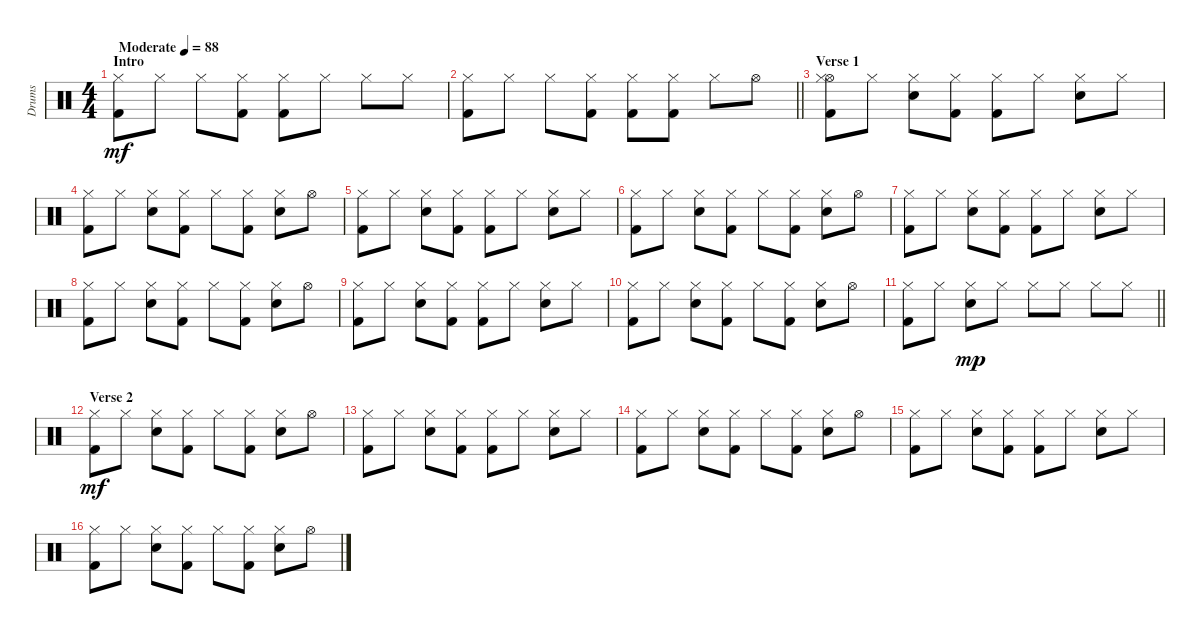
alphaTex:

\track ("Drums" "Drums") {instrument percussion}
\staff {score}
\articulation defaults
\ts (4 4)
\section ("" "Intro")
\tempo (88 "Moderate")
\clef neutral
\ks c
("Kick (hit) 2" "Hi-Hat (closed)").8{dy mf} "Hi-Hat (closed)".8 "Hi-Hat (closed)".8 ("Kick (hit) 2" "Hi-Hat (closed)").8 ("Kick (hit) 2" "Hi-Hat (closed)").8 "Hi-Hat (closed)".8 "Hi-Hat (closed)".8 "Hi-Hat (closed)".8 |
\barLineRight lightlight
("Kick (hit) 2" "Hi-Hat (closed)").8 "Hi-Hat (closed)".8 "Hi-Hat (closed)".8 ("Kick (hit) 2" "Hi-Hat (closed)").8 ("Kick (hit) 2" "Hi-Hat (closed)").8 ("Kick (hit) 2" "Hi-Hat (closed)").8 "Hi-Hat (closed)".8 "Hi-Hat (open)".8 |
\section ("" "Verse 1")
("Kick (hit) 2" "Hi-Hat (open)" "Hi-Hat (closed)").8 "Hi-Hat (closed)".8 ("Snare (hit) 2" "Hi-Hat (closed)").8 ("Kick (hit) 2" "Hi-Hat (closed)").8 ("Kick (hit) 2" "Hi-Hat (closed)").8 "Hi-Hat (closed)".8 ("Snare (hit) 2" "Hi-Hat (closed)").8 "Hi-Hat (closed)".8 |
("Kick (hit) 2" "Hi-Hat (closed)").8 "Hi-Hat (closed)".8 ("Snare (hit) 2" "Hi-Hat (closed)").8 ("Kick (hit) 2" "Hi-Hat (closed)").8 "Hi-Hat (closed)".8 ("Kick (hit) 2" "Hi-Hat (closed)").8 ("Snare (hit) 2" "Hi-Hat (closed)").8 "Hi-Hat (open)".8 |
("Kick (hit) 2" "Hi-Hat (closed)").8 "Hi-Hat (closed)".8 ("Snare (hit) 2" "Hi-Hat (closed)").8 ("Kick (hit) 2" "Hi-Hat (closed)").8 ("Kick (hit) 2" "Hi-Hat (closed)").8 "Hi-Hat (closed)".8 ("Snare (hit) 2" "Hi-Hat (closed)").8 "Hi-Hat (closed)".8 |
("Kick (hit) 2" "Hi-Hat (closed)").8 "Hi-Hat (closed)".8 ("Snare (hit) 2" "Hi-Hat (closed)").8 ("Kick (hit) 2" "Hi-Hat (closed)").8 "Hi-Hat (closed)".8 ("Kick (hit) 2" "Hi-Hat (closed)").8 ("Snare (hit) 2" "Hi-Hat (closed)").8 "Hi-Hat (open)".8 |
("Kick (hit) 2" "Hi-Hat (closed)").8 "Hi-Hat (closed)".8 ("Snare (hit) 2" "Hi-Hat (closed)").8 ("Kick (hit) 2" "Hi-Hat (closed)").8 ("Kick (hit) 2" "Hi-Hat (closed)").8 "Hi-Hat (closed)".8 ("Snare (hit) 2" "Hi-Hat (closed)").8 "Hi-Hat (closed)".8 |
("Kick (hit) 2" "Hi-Hat (closed)").8 "Hi-Hat (closed)".8 ("Snare (hit) 2" "Hi-Hat (closed)").8 ("Kick (hit) 2" "Hi-Hat (closed)").8 "Hi-Hat (closed)".8 ("Kick (hit) 2" "Hi-Hat (closed)").8 ("Snare (hit) 2" "Hi-Hat (closed)").8 "Hi-Hat (open)".8 |
("Kick (hit) 2" "Hi-Hat (closed)").8 "Hi-Hat (closed)".8 ("Snare (hit) 2" "Hi-Hat (closed)").8 ("Kick (hit) 2" "Hi-Hat (closed)").8 ("Kick (hit) 2" "Hi-Hat (closed)").8 "Hi-Hat (closed)".8 ("Snare (hit) 2" "Hi-Hat (closed)").8 "Hi-Hat (closed)".8 |
("Kick (hit) 2" "Hi-Hat (closed)").8 "Hi-Hat (closed)".8 ("Snare (hit) 2" "Hi-Hat (closed)").8 ("Kick (hit) 2" "Hi-Hat (closed)").8 "Hi-Hat (closed)".8 ("Kick (hit) 2" "Hi-Hat (closed)").8 ("Snare (hit) 2" "Hi-Hat (closed)").8 "Hi-Hat (open)".8 |
\barLineRight lightlight
("Kick (hit) 2" "Hi-Hat (closed)").8 "Hi-Hat (closed)".8 ("Snare (hit) 2" "Hi-Hat (closed)").8{dy mp} "Hi-Hat (closed)".8 "Hi-Hat (closed)".8 "Hi-Hat (closed)".8 "Hi-Hat (closed)".8 "Hi-Hat (closed)".8 |
\section ("" "Verse 2")
("Kick (hit) 2" "Hi-Hat (closed)").8{dy mf} "Hi-Hat (closed)".8 ("Snare (hit) 2" "Hi-Hat (closed)").8 ("Kick (hit) 2" "Hi-Hat (closed)").8 "Hi-Hat (closed)".8 ("Kick (hit) 2" "Hi-Hat (closed)").8 ("Snare (hit) 2" "Hi-Hat (closed)").8 "Hi-Hat (open)".8 |
("Kick (hit) 2" "Hi-Hat (closed)").8 "Hi-Hat (closed)".8 ("Snare (hit) 2" "Hi-Hat (closed)").8 ("Kick (hit) 2" "Hi-Hat (closed)").8 ("Kick (hit) 2" "Hi-Hat (closed)").8 "Hi-Hat (closed)".8 ("Snare (hit) 2" "Hi-Hat (closed)").8 "Hi-Hat (closed)".8 |
("Kick (hit) 2" "Hi-Hat (closed)").8 "Hi-Hat (closed)".8 ("Snare (hit) 2" "Hi-Hat (closed)").8 ("Kick (hit) 2" "Hi-Hat (closed)").8 "Hi-Hat (closed)".8 ("Kick (hit) 2" "Hi-Hat (closed)").8 ("Snare (hit) 2" "Hi-Hat (closed)").8 "Hi-Hat (open)".8 |
("Kick (hit) 2" "Hi-Hat (closed)").8 "Hi-Hat (closed)".8 ("Snare (hit) 2" "Hi-Hat (closed)").8 ("Kick (hit) 2" "Hi-Hat (closed)").8 ("Kick (hit) 2" "Hi-Hat (closed)").8 "Hi-Hat (closed)".8 ("Snare (hit) 2" "Hi-Hat (closed)").8 "Hi-Hat (closed)".8 |
("Kick (hit) 2" "Hi-Hat (closed)").8 "Hi-Hat (closed)".8 ("Snare (hit) 2" "Hi-Hat (closed)").8 ("Kick (hit) 2" "Hi-Hat (closed)").8 "Hi-Hat (closed)".8 ("Kick (hit) 2" "Hi-Hat (closed)").8 ("Snare (hit) 2" "Hi-Hat (closed)").8 "Hi-Hat (open)".8
